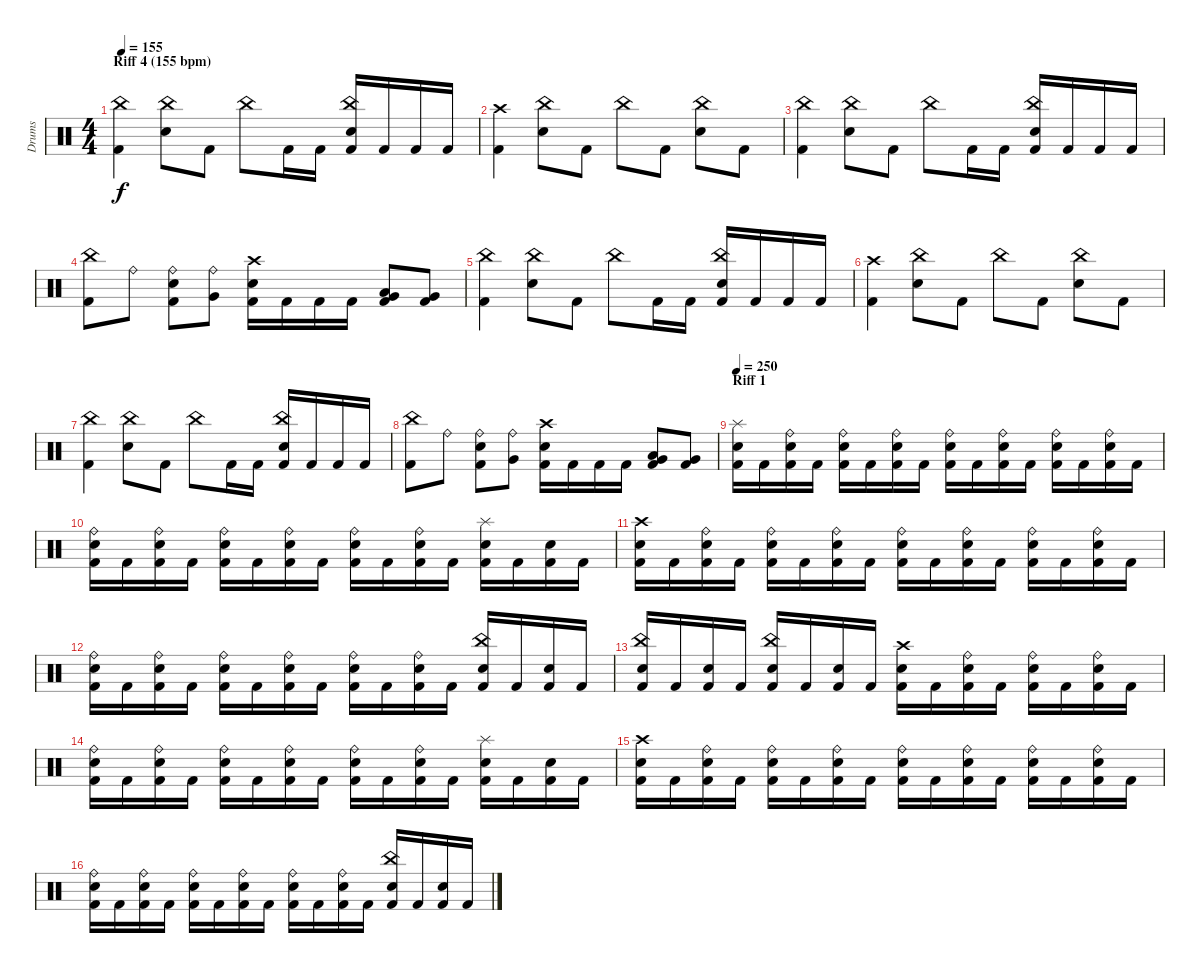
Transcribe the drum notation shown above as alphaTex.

\track ("Drums" "Drums") {instrument percussion}
\staff {score}
\articulation defaults
\ts (4 4)
\section ("" "Riff 4 (155 bpm)")
\tempo 155
\clef neutral
\ks c
("Kick (hit) 2" "China (hit)").4{dy f} ("Snare (hit) 2" "China (hit)").8 "Kick (hit) 2".8 "China (hit)".8 "Kick (hit) 2".16 "Kick (hit) 2".16 ("Kick (hit) 2" "Snare (hit) 2" "China (hit)").16 "Kick (hit) 2".16 "Kick (hit) 2".16 "Kick (hit) 2".16 |
("Kick (hit) 2" "Crash high (hit)").4 ("Snare (hit) 2" "China (hit)").8 "Kick (hit) 2".8 "China (hit)".8 "Kick (hit) 2".8 ("Snare (hit) 2" "China (hit)").8 "Kick (hit) 2".8 |
("Kick (hit) 2" "China (hit)").4 ("Snare (hit) 2" "China (hit)").8 "Kick (hit) 2".8 "China (hit)".8 "Kick (hit) 2".16 "Kick (hit) 2".16 ("Kick (hit) 2" "Snare (hit) 2" "China (hit)").16 "Kick (hit) 2".16 "Kick (hit) 2".16 "Kick (hit) 2".16 |
("Kick (hit) 2" "China (hit)").8 "Ride (bell)".8 ("Kick (hit) 2" "Ride (bell)" "Snare (hit) 2").8 ("Ride (bell)" "Very Low Tom (hit)").8 ("Kick (hit) 2" "Snare (hit) 2" "Crash high (hit)").16 "Kick (hit) 2".16 "Kick (hit) 2".16 "Kick (hit) 2".16 ("Kick (hit) 2" "Very Low Tom (hit)" "Low Tom (hit)").8 ("Kick (hit) 2" "Very Low Tom (hit)").8 |
("Kick (hit) 2" "China (hit)").4 ("Snare (hit) 2" "China (hit)").8 "Kick (hit) 2".8 "China (hit)".8 "Kick (hit) 2".16 "Kick (hit) 2".16 ("Kick (hit) 2" "Snare (hit) 2" "China (hit)").16 "Kick (hit) 2".16 "Kick (hit) 2".16 "Kick (hit) 2".16 |
("Kick (hit) 2" "Crash high (hit)").4 ("Snare (hit) 2" "China (hit)").8 "Kick (hit) 2".8 "China (hit)".8 "Kick (hit) 2".8 ("Snare (hit) 2" "China (hit)").8 "Kick (hit) 2".8 |
("Kick (hit) 2" "China (hit)").4 ("Snare (hit) 2" "China (hit)").8 "Kick (hit) 2".8 "China (hit)".8 "Kick (hit) 2".16 "Kick (hit) 2".16 ("Kick (hit) 2" "Snare (hit) 2" "China (hit)").16 "Kick (hit) 2".16 "Kick (hit) 2".16 "Kick (hit) 2".16 |
("Kick (hit) 2" "China (hit)").8 "Ride (bell)".8 ("Kick (hit) 2" "Ride (bell)" "Snare (hit) 2").8 ("Ride (bell)" "Very Low Tom (hit)").8 ("Kick (hit) 2" "Snare (hit) 2" "Crash high (hit)").16 "Kick (hit) 2".16 "Kick (hit) 2".16 "Kick (hit) 2".16 ("Kick (hit) 2" "Very Low Tom (hit)" "Low Tom (hit)").8 ("Kick (hit) 2" "Very Low Tom (hit)").8 |
\section ("" "Riff 1")
\tempo 250
("Kick (hit) 2" "Snare (hit) 2" "Splash (hit)").16 "Kick (hit) 2".16 ("Kick (hit) 2" "Snare (hit) 2" "Ride (bell)").16 "Kick (hit) 2".16 ("Kick (hit) 2" "Snare (hit) 2" "Ride (bell)").16 "Kick (hit) 2".16 ("Kick (hit) 2" "Snare (hit) 2" "Ride (bell)").16 "Kick (hit) 2".16 ("Kick (hit) 2" "Snare (hit) 2" "Ride (bell)").16 "Kick (hit) 2".16 ("Kick (hit) 2" "Snare (hit) 2" "Ride (bell)").16 "Kick (hit) 2".16 ("Kick (hit) 2" "Snare (hit) 2" "Ride (bell)").16 "Kick (hit) 2".16 ("Kick (hit) 2" "Snare (hit) 2" "Ride (bell)").16 "Kick (hit) 2".16 |
("Kick (hit) 2" "Snare (hit) 2" "Ride (bell)").16 "Kick (hit) 2".16 ("Kick (hit) 2" "Snare (hit) 2" "Ride (bell)").16 "Kick (hit) 2".16 ("Kick (hit) 2" "Snare (hit) 2" "Ride (bell)").16 "Kick (hit) 2".16 ("Kick (hit) 2" "Snare (hit) 2" "Ride (bell)").16 "Kick (hit) 2".16 ("Kick (hit) 2" "Snare (hit) 2" "Ride (bell)").16 "Kick (hit) 2".16 ("Kick (hit) 2" "Snare (hit) 2" "Ride (bell)").16 "Kick (hit) 2".16 ("Kick (hit) 2" "Snare (hit) 2" "Splash (hit)").16 "Kick (hit) 2".16 ("Kick (hit) 2" "Snare (hit) 2").16 "Kick (hit) 2".16 |
("Kick (hit) 2" "Snare (hit) 2" "Crash high (hit)").16 "Kick (hit) 2".16 ("Kick (hit) 2" "Snare (hit) 2" "Ride (bell)").16 "Kick (hit) 2".16 ("Kick (hit) 2" "Snare (hit) 2" "Ride (bell)").16 "Kick (hit) 2".16 ("Kick (hit) 2" "Snare (hit) 2" "Ride (bell)").16 "Kick (hit) 2".16 ("Kick (hit) 2" "Snare (hit) 2" "Ride (bell)").16 "Kick (hit) 2".16 ("Kick (hit) 2" "Snare (hit) 2" "Ride (bell)").16 "Kick (hit) 2".16 ("Kick (hit) 2" "Snare (hit) 2" "Ride (bell)").16 "Kick (hit) 2".16 ("Kick (hit) 2" "Snare (hit) 2" "Ride (bell)").16 "Kick (hit) 2".16 |
("Kick (hit) 2" "Snare (hit) 2" "Ride (bell)").16 "Kick (hit) 2".16 ("Kick (hit) 2" "Snare (hit) 2" "Ride (bell)").16 "Kick (hit) 2".16 ("Kick (hit) 2" "Snare (hit) 2" "Ride (bell)").16 "Kick (hit) 2".16 ("Kick (hit) 2" "Snare (hit) 2" "Ride (bell)").16 "Kick (hit) 2".16 ("Kick (hit) 2" "Snare (hit) 2" "Ride (bell)").16 "Kick (hit) 2".16 ("Kick (hit) 2" "Snare (hit) 2" "Ride (bell)").16 "Kick (hit) 2".16 ("Kick (hit) 2" "Snare (hit) 2" "China (hit)").16 "Kick (hit) 2".16 ("Kick (hit) 2" "Snare (hit) 2").16 "Kick (hit) 2".16 |
("Kick (hit) 2" "Snare (hit) 2" "China (hit)").16 "Kick (hit) 2".16 ("Kick (hit) 2" "Snare (hit) 2").16 "Kick (hit) 2".16 ("Kick (hit) 2" "Snare (hit) 2" "China (hit)").16 "Kick (hit) 2".16 ("Kick (hit) 2" "Snare (hit) 2").16 "Kick (hit) 2".16 ("Kick (hit) 2" "Snare (hit) 2" "Crash high (hit)").16 "Kick (hit) 2".16 ("Kick (hit) 2" "Snare (hit) 2" "Ride (bell)").16 "Kick (hit) 2".16 ("Kick (hit) 2" "Snare (hit) 2" "Ride (bell)").16 "Kick (hit) 2".16 ("Kick (hit) 2" "Snare (hit) 2" "Ride (bell)").16 "Kick (hit) 2".16 |
("Kick (hit) 2" "Snare (hit) 2" "Ride (bell)").16 "Kick (hit) 2".16 ("Kick (hit) 2" "Snare (hit) 2" "Ride (bell)").16 "Kick (hit) 2".16 ("Kick (hit) 2" "Snare (hit) 2" "Ride (bell)").16 "Kick (hit) 2".16 ("Kick (hit) 2" "Snare (hit) 2" "Ride (bell)").16 "Kick (hit) 2".16 ("Kick (hit) 2" "Snare (hit) 2" "Ride (bell)").16 "Kick (hit) 2".16 ("Kick (hit) 2" "Snare (hit) 2" "Ride (bell)").16 "Kick (hit) 2".16 ("Kick (hit) 2" "Snare (hit) 2" "Splash (hit)").16 "Kick (hit) 2".16 ("Kick (hit) 2" "Snare (hit) 2").16 "Kick (hit) 2".16 |
("Kick (hit) 2" "Snare (hit) 2" "Crash high (hit)").16 "Kick (hit) 2".16 ("Kick (hit) 2" "Snare (hit) 2" "Ride (bell)").16 "Kick (hit) 2".16 ("Kick (hit) 2" "Snare (hit) 2" "Ride (bell)").16 "Kick (hit) 2".16 ("Kick (hit) 2" "Snare (hit) 2" "Ride (bell)").16 "Kick (hit) 2".16 ("Kick (hit) 2" "Snare (hit) 2" "Ride (bell)").16 "Kick (hit) 2".16 ("Kick (hit) 2" "Snare (hit) 2" "Ride (bell)").16 "Kick (hit) 2".16 ("Kick (hit) 2" "Snare (hit) 2" "Ride (bell)").16 "Kick (hit) 2".16 ("Kick (hit) 2" "Snare (hit) 2" "Ride (bell)").16 "Kick (hit) 2".16 |
("Kick (hit) 2" "Snare (hit) 2" "Ride (bell)").16 "Kick (hit) 2".16 ("Kick (hit) 2" "Snare (hit) 2" "Ride (bell)").16 "Kick (hit) 2".16 ("Kick (hit) 2" "Snare (hit) 2" "Ride (bell)").16 "Kick (hit) 2".16 ("Kick (hit) 2" "Snare (hit) 2" "Ride (bell)").16 "Kick (hit) 2".16 ("Kick (hit) 2" "Snare (hit) 2" "Ride (bell)").16 "Kick (hit) 2".16 ("Kick (hit) 2" "Snare (hit) 2" "Ride (bell)").16 "Kick (hit) 2".16 ("Kick (hit) 2" "Snare (hit) 2" "China (hit)").16 "Kick (hit) 2".16 ("Kick (hit) 2" "Snare (hit) 2").16 "Kick (hit) 2".16
